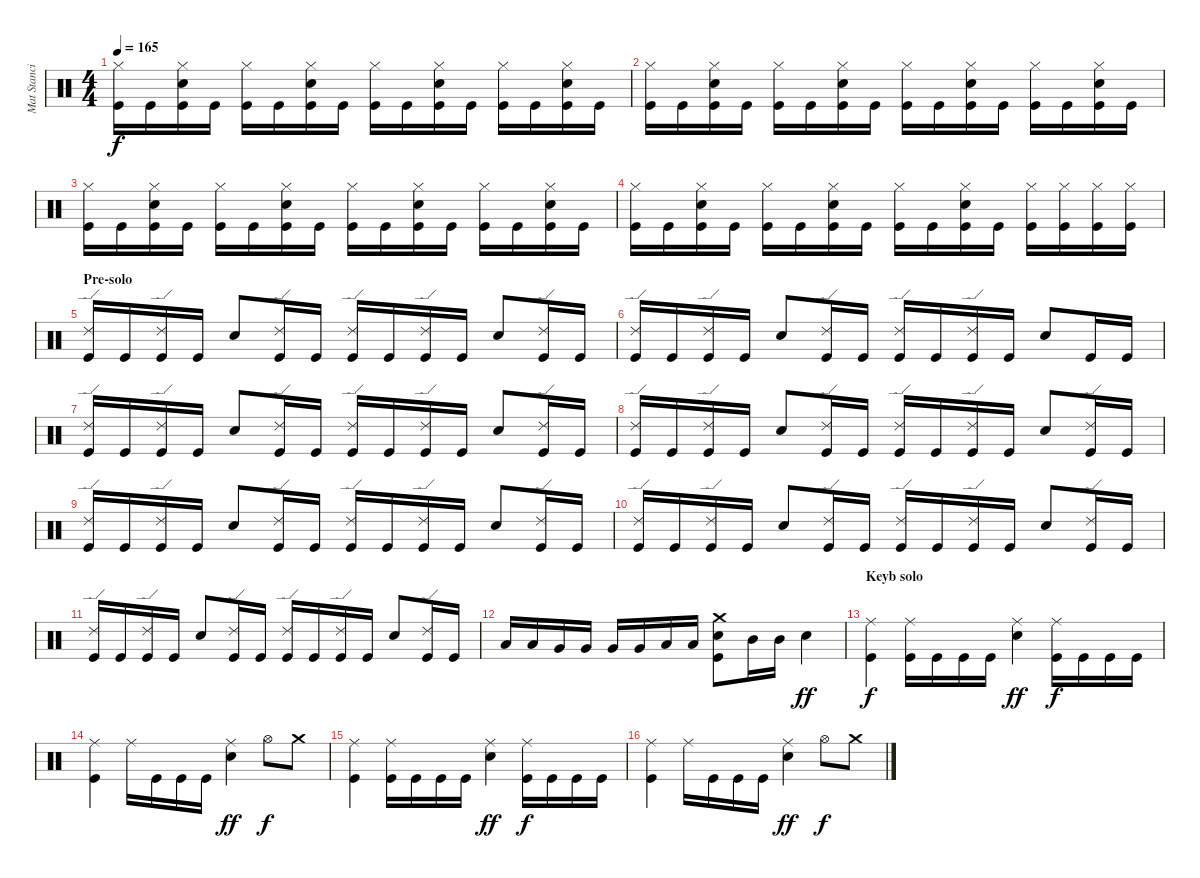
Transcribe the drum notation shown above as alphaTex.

\track ("Mat Stancioiu (Drums)" "Mat Stanci") {instrument percussion}
\staff {score}
\articulation defaults
\ts (4 4)
\tempo 165
\clef neutral
\ks c
("Hi-Hat (closed)" "Kick (hit)").16{dy f} "Kick (hit)".16 ("Hi-Hat (closed)" "Electric Snare (hit)" "Kick (hit)").16 "Kick (hit)".16 ("Hi-Hat (closed)" "Kick (hit)").16 "Kick (hit)".16 ("Hi-Hat (closed)" "Electric Snare (hit)" "Kick (hit)").16 "Kick (hit)".16 ("Hi-Hat (closed)" "Kick (hit)").16 "Kick (hit)".16 ("Hi-Hat (closed)" "Electric Snare (hit)" "Kick (hit)").16 "Kick (hit)".16 ("Hi-Hat (closed)" "Kick (hit)").16 "Kick (hit)".16 ("Hi-Hat (closed)" "Electric Snare (hit)" "Kick (hit)").16 "Kick (hit)".16 |
("Hi-Hat (closed)" "Kick (hit)").16 "Kick (hit)".16 ("Hi-Hat (closed)" "Electric Snare (hit)" "Kick (hit)").16 "Kick (hit)".16 ("Hi-Hat (closed)" "Kick (hit)").16 "Kick (hit)".16 ("Hi-Hat (closed)" "Electric Snare (hit)" "Kick (hit)").16 "Kick (hit)".16 ("Hi-Hat (closed)" "Kick (hit)").16 "Kick (hit)".16 ("Hi-Hat (closed)" "Electric Snare (hit)" "Kick (hit)").16 "Kick (hit)".16 ("Hi-Hat (closed)" "Kick (hit)").16 "Kick (hit)".16 ("Hi-Hat (closed)" "Electric Snare (hit)" "Kick (hit)").16 "Kick (hit)".16 |
("Hi-Hat (closed)" "Kick (hit)").16 "Kick (hit)".16 ("Hi-Hat (closed)" "Electric Snare (hit)" "Kick (hit)").16 "Kick (hit)".16 ("Hi-Hat (closed)" "Kick (hit)").16 "Kick (hit)".16 ("Hi-Hat (closed)" "Electric Snare (hit)" "Kick (hit)").16 "Kick (hit)".16 ("Hi-Hat (closed)" "Kick (hit)").16 "Kick (hit)".16 ("Hi-Hat (closed)" "Electric Snare (hit)" "Kick (hit)").16 "Kick (hit)".16 ("Hi-Hat (closed)" "Kick (hit)").16 "Kick (hit)".16 ("Hi-Hat (closed)" "Electric Snare (hit)" "Kick (hit)").16 "Kick (hit)".16 |
("Hi-Hat (closed)" "Kick (hit)").16 "Kick (hit)".16 ("Hi-Hat (closed)" "Electric Snare (hit)" "Kick (hit)").16 "Kick (hit)".16 ("Hi-Hat (closed)" "Kick (hit)").16 "Kick (hit)".16 ("Hi-Hat (closed)" "Electric Snare (hit)" "Kick (hit)").16 "Kick (hit)".16 ("Hi-Hat (closed)" "Kick (hit)").16 "Kick (hit)".16 ("Hi-Hat (closed)" "Electric Snare (hit)" "Kick (hit)").16 "Kick (hit)".16 ("Hi-Hat (closed)" "Kick (hit)").16 ("Hi-Hat (closed)" "Kick (hit)").16 ("Hi-Hat (closed)" "Kick (hit)").16 ("Hi-Hat (closed)" "Kick (hit)").16 |
\section ("" "Pre-solo")
("Ride (edge) 2" "Kick (hit)").16 "Kick (hit)".16 ("Ride (edge) 2" "Kick (hit)").16 "Kick (hit)".16 "Electric Snare (hit)".8 ("Ride (edge) 2" "Kick (hit)").16 "Kick (hit)".16 ("Ride (edge) 2" "Kick (hit)").16 "Kick (hit)".16 ("Ride (edge) 2" "Kick (hit)").16 "Kick (hit)".16 "Electric Snare (hit)".8 ("Ride (edge) 2" "Kick (hit)").16 "Kick (hit)".16 |
("Ride (edge) 2" "Kick (hit)").16 "Kick (hit)".16 ("Ride (edge) 2" "Kick (hit)").16 "Kick (hit)".16 "Electric Snare (hit)".8 ("Ride (edge) 2" "Kick (hit)").16 "Kick (hit)".16 ("Ride (edge) 2" "Kick (hit)").16 "Kick (hit)".16 ("Ride (edge) 2" "Kick (hit)").16 "Kick (hit)".16 "Electric Snare (hit)".8 "Kick (hit)".16 "Kick (hit)".16 |
("Ride (edge) 2" "Kick (hit)").16 "Kick (hit)".16 ("Ride (edge) 2" "Kick (hit)").16 "Kick (hit)".16 "Electric Snare (hit)".8 ("Ride (edge) 2" "Kick (hit)").16 "Kick (hit)".16 ("Ride (edge) 2" "Kick (hit)").16 "Kick (hit)".16 ("Ride (edge) 2" "Kick (hit)").16 "Kick (hit)".16 "Electric Snare (hit)".8 ("Ride (edge) 2" "Kick (hit)").16 "Kick (hit)".16 |
("Ride (edge) 2" "Kick (hit)").16 "Kick (hit)".16 ("Ride (edge) 2" "Kick (hit)").16 "Kick (hit)".16 "Electric Snare (hit)".8 ("Ride (edge) 2" "Kick (hit)").16 "Kick (hit)".16 ("Ride (edge) 2" "Kick (hit)").16 "Kick (hit)".16 ("Ride (edge) 2" "Kick (hit)").16 "Kick (hit)".16 "Electric Snare (hit)".8 ("Ride (edge) 2" "Kick (hit)").16 "Kick (hit)".16 |
("Ride (edge) 2" "Kick (hit)").16 "Kick (hit)".16 ("Ride (edge) 2" "Kick (hit)").16 "Kick (hit)".16 "Electric Snare (hit)".8 ("Ride (edge) 2" "Kick (hit)").16 "Kick (hit)".16 ("Ride (edge) 2" "Kick (hit)").16 "Kick (hit)".16 ("Ride (edge) 2" "Kick (hit)").16 "Kick (hit)".16 "Electric Snare (hit)".8 ("Ride (edge) 2" "Kick (hit)").16 "Kick (hit)".16 |
("Ride (edge) 2" "Kick (hit)").16 "Kick (hit)".16 ("Ride (edge) 2" "Kick (hit)").16 "Kick (hit)".16 "Electric Snare (hit)".8 ("Ride (edge) 2" "Kick (hit)").16 "Kick (hit)".16 ("Ride (edge) 2" "Kick (hit)").16 "Kick (hit)".16 ("Ride (edge) 2" "Kick (hit)").16 "Kick (hit)".16 "Electric Snare (hit)".8 ("Ride (edge) 2" "Kick (hit)").16 "Kick (hit)".16 |
("Ride (edge) 2" "Kick (hit)").16 "Kick (hit)".16 ("Ride (edge) 2" "Kick (hit)").16 "Kick (hit)".16 "Electric Snare (hit)".8 ("Ride (edge) 2" "Kick (hit)").16 "Kick (hit)".16 ("Ride (edge) 2" "Kick (hit)").16 "Kick (hit)".16 ("Ride (edge) 2" "Kick (hit)").16 "Kick (hit)".16 "Electric Snare (hit)".8 ("Ride (edge) 2" "Kick (hit)").16 "Kick (hit)".16 |
"Low Tom (hit)".16 "Low Tom (hit)".16 "Very Low Tom (hit)".16 "Very Low Tom (hit)".16 "Very Low Tom (hit)".16 "Very Low Tom (hit)".16 "Low Floor Tom (hit)".16 "Low Floor Tom (hit)".16 ("Crash medium (hit)" "Electric Snare (hit)" "Kick (hit)").8 "Mid Tom (hit)".16 "Mid Tom (hit)".16 "Electric Snare (hit)".4{dy ff} |
\section ("" "Keyb solo")
("Ride (middle)" "Kick (hit)").4{dy f} ("Ride (middle)" "Kick (hit)").16 "Kick (hit)".16 "Kick (hit)".16 "Kick (hit)".16 ("Ride (middle)" "Electric Snare (hit)").4{dy ff} ("Ride (middle)" "Kick (hit)").16{dy f} "Kick (hit)".16 "Kick (hit)".16 "Kick (hit)".16 |
("Ride (middle)" "Kick (hit)").4 "Ride (middle)".16 "Kick (hit)".16 "Kick (hit)".16 "Kick (hit)".16 ("Ride (middle)" "Electric Snare (hit)").4{dy ff} "Hi-Hat (open)".8{dy f} "Crash medium (hit)".8 |
("Ride (middle)" "Kick (hit)").4 ("Ride (middle)" "Kick (hit)").16 "Kick (hit)".16 "Kick (hit)".16 "Kick (hit)".16 ("Ride (middle)" "Electric Snare (hit)").4{dy ff} ("Ride (middle)" "Kick (hit)").16{dy f} "Kick (hit)".16 "Kick (hit)".16 "Kick (hit)".16 |
("Ride (middle)" "Kick (hit)").4 "Ride (middle)".16 "Kick (hit)".16 "Kick (hit)".16 "Kick (hit)".16 ("Ride (middle)" "Electric Snare (hit)").4{dy ff} "Hi-Hat (open)".8{dy f} "Crash medium (hit)".8
